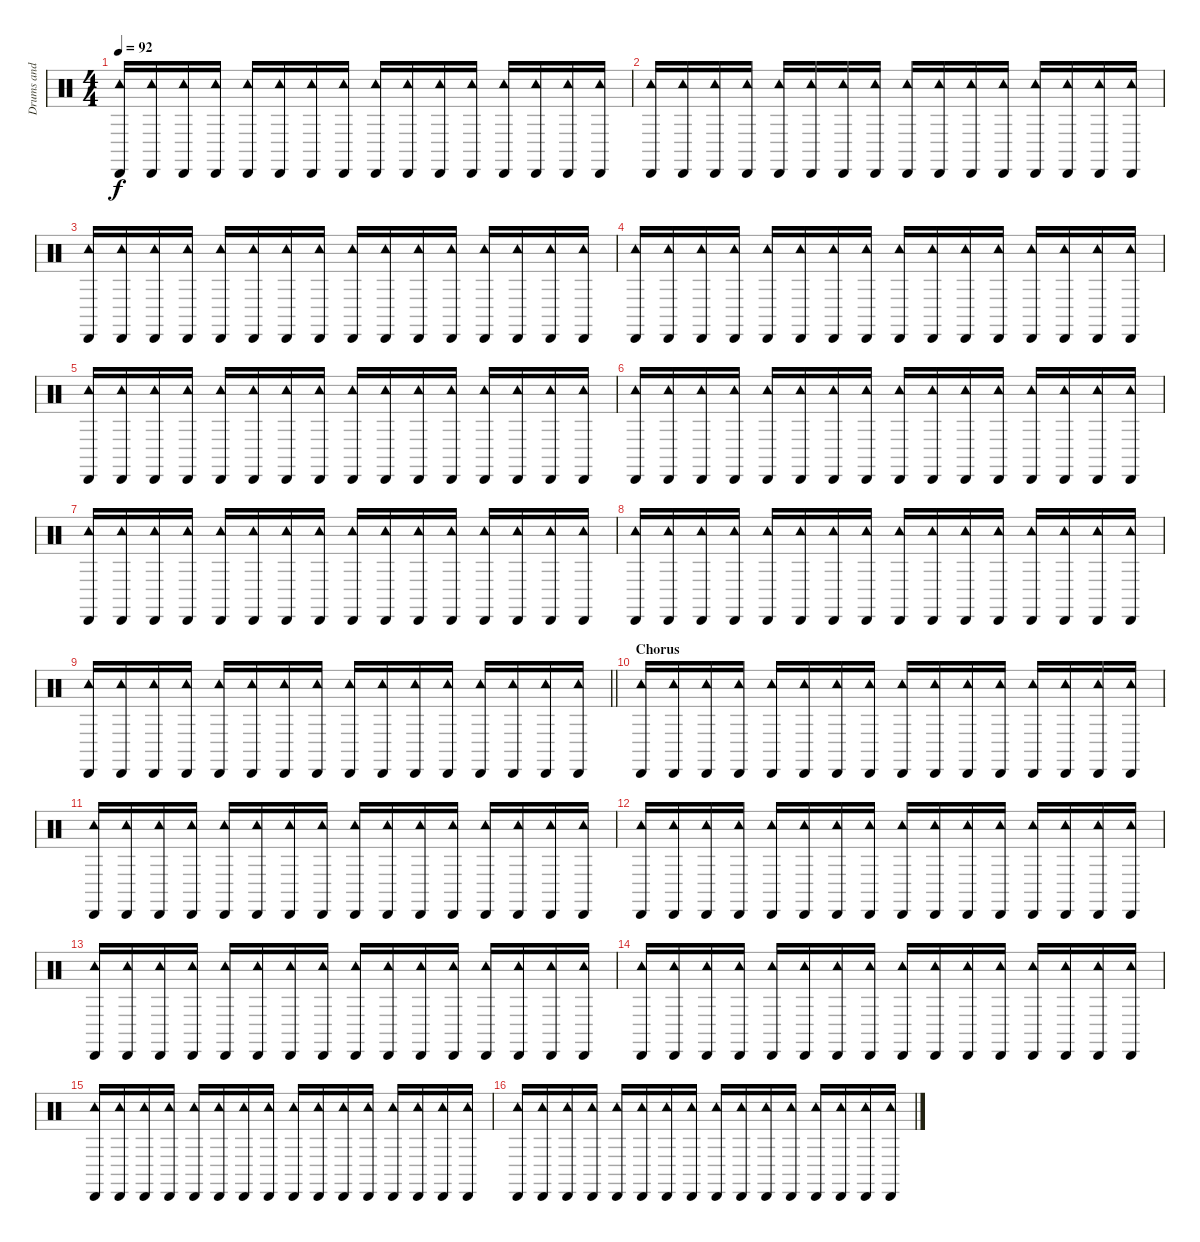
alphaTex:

\track ("Drums and Percussions" "Drums and ") {instrument percussion}
\staff {score}
\articulation defaults
\ts (4 4)
\tempo 92
\clef neutral
\ks c
("Cabasa (hit)" "Tambourine (hit)").16{dy f} ("Cabasa (hit)" "Tambourine (hit)").16 ("Cabasa (hit)" "Tambourine (hit)").16 ("Cabasa (hit)" "Tambourine (hit)").16 ("Cabasa (hit)" "Tambourine (hit)").16 ("Cabasa (hit)" "Tambourine (hit)").16 ("Cabasa (hit)" "Tambourine (hit)").16 ("Cabasa (hit)" "Tambourine (hit)").16 ("Cabasa (hit)" "Tambourine (hit)").16 ("Cabasa (hit)" "Tambourine (hit)").16 ("Cabasa (hit)" "Tambourine (hit)").16 ("Cabasa (hit)" "Tambourine (hit)").16 ("Cabasa (hit)" "Tambourine (hit)").16 ("Cabasa (hit)" "Tambourine (hit)").16 ("Cabasa (hit)" "Tambourine (hit)").16 ("Cabasa (hit)" "Tambourine (hit)").16 |
("Cabasa (hit)" "Tambourine (hit)").16 ("Cabasa (hit)" "Tambourine (hit)").16 ("Cabasa (hit)" "Tambourine (hit)").16 ("Cabasa (hit)" "Tambourine (hit)").16 ("Cabasa (hit)" "Tambourine (hit)").16 ("Cabasa (hit)" "Tambourine (hit)").16 ("Cabasa (hit)" "Tambourine (hit)").16 ("Cabasa (hit)" "Tambourine (hit)").16 ("Cabasa (hit)" "Tambourine (hit)").16 ("Cabasa (hit)" "Tambourine (hit)").16 ("Cabasa (hit)" "Tambourine (hit)").16 ("Cabasa (hit)" "Tambourine (hit)").16 ("Cabasa (hit)" "Tambourine (hit)").16 ("Cabasa (hit)" "Tambourine (hit)").16 ("Cabasa (hit)" "Tambourine (hit)").16 ("Cabasa (hit)" "Tambourine (hit)").16 |
("Cabasa (hit)" "Tambourine (hit)").16 ("Cabasa (hit)" "Tambourine (hit)").16 ("Cabasa (hit)" "Tambourine (hit)").16 ("Cabasa (hit)" "Tambourine (hit)").16 ("Cabasa (hit)" "Tambourine (hit)").16 ("Cabasa (hit)" "Tambourine (hit)").16 ("Cabasa (hit)" "Tambourine (hit)").16 ("Cabasa (hit)" "Tambourine (hit)").16 ("Cabasa (hit)" "Tambourine (hit)").16 ("Cabasa (hit)" "Tambourine (hit)").16 ("Cabasa (hit)" "Tambourine (hit)").16 ("Cabasa (hit)" "Tambourine (hit)").16 ("Cabasa (hit)" "Tambourine (hit)").16 ("Cabasa (hit)" "Tambourine (hit)").16 ("Cabasa (hit)" "Tambourine (hit)").16 ("Cabasa (hit)" "Tambourine (hit)").16 |
("Cabasa (hit)" "Tambourine (hit)").16 ("Cabasa (hit)" "Tambourine (hit)").16 ("Cabasa (hit)" "Tambourine (hit)").16 ("Cabasa (hit)" "Tambourine (hit)").16 ("Cabasa (hit)" "Tambourine (hit)").16 ("Cabasa (hit)" "Tambourine (hit)").16 ("Cabasa (hit)" "Tambourine (hit)").16 ("Cabasa (hit)" "Tambourine (hit)").16 ("Cabasa (hit)" "Tambourine (hit)").16 ("Cabasa (hit)" "Tambourine (hit)").16 ("Cabasa (hit)" "Tambourine (hit)").16 ("Cabasa (hit)" "Tambourine (hit)").16 ("Cabasa (hit)" "Tambourine (hit)").16 ("Cabasa (hit)" "Tambourine (hit)").16 ("Cabasa (hit)" "Tambourine (hit)").16 ("Cabasa (hit)" "Tambourine (hit)").16 |
("Cabasa (hit)" "Tambourine (hit)").16 ("Cabasa (hit)" "Tambourine (hit)").16 ("Cabasa (hit)" "Tambourine (hit)").16 ("Cabasa (hit)" "Tambourine (hit)").16 ("Cabasa (hit)" "Tambourine (hit)").16 ("Cabasa (hit)" "Tambourine (hit)").16 ("Cabasa (hit)" "Tambourine (hit)").16 ("Cabasa (hit)" "Tambourine (hit)").16 ("Cabasa (hit)" "Tambourine (hit)").16 ("Cabasa (hit)" "Tambourine (hit)").16 ("Cabasa (hit)" "Tambourine (hit)").16 ("Cabasa (hit)" "Tambourine (hit)").16 ("Cabasa (hit)" "Tambourine (hit)").16 ("Cabasa (hit)" "Tambourine (hit)").16 ("Cabasa (hit)" "Tambourine (hit)").16 ("Cabasa (hit)" "Tambourine (hit)").16 |
("Cabasa (hit)" "Tambourine (hit)").16 ("Cabasa (hit)" "Tambourine (hit)").16 ("Cabasa (hit)" "Tambourine (hit)").16 ("Cabasa (hit)" "Tambourine (hit)").16 ("Cabasa (hit)" "Tambourine (hit)").16 ("Cabasa (hit)" "Tambourine (hit)").16 ("Cabasa (hit)" "Tambourine (hit)").16 ("Cabasa (hit)" "Tambourine (hit)").16 ("Cabasa (hit)" "Tambourine (hit)").16 ("Cabasa (hit)" "Tambourine (hit)").16 ("Cabasa (hit)" "Tambourine (hit)").16 ("Cabasa (hit)" "Tambourine (hit)").16 ("Cabasa (hit)" "Tambourine (hit)").16 ("Cabasa (hit)" "Tambourine (hit)").16 ("Cabasa (hit)" "Tambourine (hit)").16 ("Cabasa (hit)" "Tambourine (hit)").16 |
("Cabasa (hit)" "Tambourine (hit)").16 ("Cabasa (hit)" "Tambourine (hit)").16 ("Cabasa (hit)" "Tambourine (hit)").16 ("Cabasa (hit)" "Tambourine (hit)").16 ("Cabasa (hit)" "Tambourine (hit)").16 ("Cabasa (hit)" "Tambourine (hit)").16 ("Cabasa (hit)" "Tambourine (hit)").16 ("Cabasa (hit)" "Tambourine (hit)").16 ("Cabasa (hit)" "Tambourine (hit)").16 ("Cabasa (hit)" "Tambourine (hit)").16 ("Cabasa (hit)" "Tambourine (hit)").16 ("Cabasa (hit)" "Tambourine (hit)").16 ("Cabasa (hit)" "Tambourine (hit)").16 ("Cabasa (hit)" "Tambourine (hit)").16 ("Cabasa (hit)" "Tambourine (hit)").16 ("Cabasa (hit)" "Tambourine (hit)").16 |
("Cabasa (hit)" "Tambourine (hit)").16 ("Cabasa (hit)" "Tambourine (hit)").16 ("Cabasa (hit)" "Tambourine (hit)").16 ("Cabasa (hit)" "Tambourine (hit)").16 ("Cabasa (hit)" "Tambourine (hit)").16 ("Cabasa (hit)" "Tambourine (hit)").16 ("Cabasa (hit)" "Tambourine (hit)").16 ("Cabasa (hit)" "Tambourine (hit)").16 ("Cabasa (hit)" "Tambourine (hit)").16 ("Cabasa (hit)" "Tambourine (hit)").16 ("Cabasa (hit)" "Tambourine (hit)").16 ("Cabasa (hit)" "Tambourine (hit)").16 ("Cabasa (hit)" "Tambourine (hit)").16 ("Cabasa (hit)" "Tambourine (hit)").16 ("Cabasa (hit)" "Tambourine (hit)").16 ("Cabasa (hit)" "Tambourine (hit)").16 |
\barLineRight lightlight
("Cabasa (hit)" "Tambourine (hit)").16 ("Cabasa (hit)" "Tambourine (hit)").16 ("Cabasa (hit)" "Tambourine (hit)").16 ("Cabasa (hit)" "Tambourine (hit)").16 ("Cabasa (hit)" "Tambourine (hit)").16 ("Cabasa (hit)" "Tambourine (hit)").16 ("Cabasa (hit)" "Tambourine (hit)").16 ("Cabasa (hit)" "Tambourine (hit)").16 ("Cabasa (hit)" "Tambourine (hit)").16 ("Cabasa (hit)" "Tambourine (hit)").16 ("Cabasa (hit)" "Tambourine (hit)").16 ("Cabasa (hit)" "Tambourine (hit)").16 ("Cabasa (hit)" "Tambourine (hit)").16 ("Cabasa (hit)" "Tambourine (hit)").16 ("Cabasa (hit)" "Tambourine (hit)").16 ("Cabasa (hit)" "Tambourine (hit)").16 |
\section ("" "Chorus")
("Cabasa (hit)" "Tambourine (hit)").16 ("Cabasa (hit)" "Tambourine (hit)").16 ("Cabasa (hit)" "Tambourine (hit)").16 ("Cabasa (hit)" "Tambourine (hit)").16 ("Cabasa (hit)" "Tambourine (hit)").16 ("Cabasa (hit)" "Tambourine (hit)").16 ("Cabasa (hit)" "Tambourine (hit)").16 ("Cabasa (hit)" "Tambourine (hit)").16 ("Cabasa (hit)" "Tambourine (hit)").16 ("Cabasa (hit)" "Tambourine (hit)").16 ("Cabasa (hit)" "Tambourine (hit)").16 ("Cabasa (hit)" "Tambourine (hit)").16 ("Cabasa (hit)" "Tambourine (hit)").16 ("Cabasa (hit)" "Tambourine (hit)").16 ("Cabasa (hit)" "Tambourine (hit)").16 ("Cabasa (hit)" "Tambourine (hit)").16 |
("Cabasa (hit)" "Tambourine (hit)").16 ("Cabasa (hit)" "Tambourine (hit)").16 ("Cabasa (hit)" "Tambourine (hit)").16 ("Cabasa (hit)" "Tambourine (hit)").16 ("Cabasa (hit)" "Tambourine (hit)").16 ("Cabasa (hit)" "Tambourine (hit)").16 ("Cabasa (hit)" "Tambourine (hit)").16 ("Cabasa (hit)" "Tambourine (hit)").16 ("Cabasa (hit)" "Tambourine (hit)").16 ("Cabasa (hit)" "Tambourine (hit)").16 ("Cabasa (hit)" "Tambourine (hit)").16 ("Cabasa (hit)" "Tambourine (hit)").16 ("Cabasa (hit)" "Tambourine (hit)").16 ("Cabasa (hit)" "Tambourine (hit)").16 ("Cabasa (hit)" "Tambourine (hit)").16 ("Cabasa (hit)" "Tambourine (hit)").16 |
("Cabasa (hit)" "Tambourine (hit)").16 ("Cabasa (hit)" "Tambourine (hit)").16 ("Cabasa (hit)" "Tambourine (hit)").16 ("Cabasa (hit)" "Tambourine (hit)").16 ("Cabasa (hit)" "Tambourine (hit)").16 ("Cabasa (hit)" "Tambourine (hit)").16 ("Cabasa (hit)" "Tambourine (hit)").16 ("Cabasa (hit)" "Tambourine (hit)").16 ("Cabasa (hit)" "Tambourine (hit)").16 ("Cabasa (hit)" "Tambourine (hit)").16 ("Cabasa (hit)" "Tambourine (hit)").16 ("Cabasa (hit)" "Tambourine (hit)").16 ("Cabasa (hit)" "Tambourine (hit)").16 ("Cabasa (hit)" "Tambourine (hit)").16 ("Cabasa (hit)" "Tambourine (hit)").16 ("Cabasa (hit)" "Tambourine (hit)").16 |
("Cabasa (hit)" "Tambourine (hit)").16 ("Cabasa (hit)" "Tambourine (hit)").16 ("Cabasa (hit)" "Tambourine (hit)").16 ("Cabasa (hit)" "Tambourine (hit)").16 ("Cabasa (hit)" "Tambourine (hit)").16 ("Cabasa (hit)" "Tambourine (hit)").16 ("Cabasa (hit)" "Tambourine (hit)").16 ("Cabasa (hit)" "Tambourine (hit)").16 ("Cabasa (hit)" "Tambourine (hit)").16 ("Cabasa (hit)" "Tambourine (hit)").16 ("Cabasa (hit)" "Tambourine (hit)").16 ("Cabasa (hit)" "Tambourine (hit)").16 ("Cabasa (hit)" "Tambourine (hit)").16 ("Cabasa (hit)" "Tambourine (hit)").16 ("Cabasa (hit)" "Tambourine (hit)").16 ("Cabasa (hit)" "Tambourine (hit)").16 |
("Cabasa (hit)" "Tambourine (hit)").16 ("Cabasa (hit)" "Tambourine (hit)").16 ("Cabasa (hit)" "Tambourine (hit)").16 ("Cabasa (hit)" "Tambourine (hit)").16 ("Cabasa (hit)" "Tambourine (hit)").16 ("Cabasa (hit)" "Tambourine (hit)").16 ("Cabasa (hit)" "Tambourine (hit)").16 ("Cabasa (hit)" "Tambourine (hit)").16 ("Cabasa (hit)" "Tambourine (hit)").16 ("Cabasa (hit)" "Tambourine (hit)").16 ("Cabasa (hit)" "Tambourine (hit)").16 ("Cabasa (hit)" "Tambourine (hit)").16 ("Cabasa (hit)" "Tambourine (hit)").16 ("Cabasa (hit)" "Tambourine (hit)").16 ("Cabasa (hit)" "Tambourine (hit)").16 ("Cabasa (hit)" "Tambourine (hit)").16 |
("Cabasa (hit)" "Tambourine (hit)").16 ("Cabasa (hit)" "Tambourine (hit)").16 ("Cabasa (hit)" "Tambourine (hit)").16 ("Cabasa (hit)" "Tambourine (hit)").16 ("Cabasa (hit)" "Tambourine (hit)").16 ("Cabasa (hit)" "Tambourine (hit)").16 ("Cabasa (hit)" "Tambourine (hit)").16 ("Cabasa (hit)" "Tambourine (hit)").16 ("Cabasa (hit)" "Tambourine (hit)").16 ("Cabasa (hit)" "Tambourine (hit)").16 ("Cabasa (hit)" "Tambourine (hit)").16 ("Cabasa (hit)" "Tambourine (hit)").16 ("Cabasa (hit)" "Tambourine (hit)").16 ("Cabasa (hit)" "Tambourine (hit)").16 ("Cabasa (hit)" "Tambourine (hit)").16 ("Cabasa (hit)" "Tambourine (hit)").16 |
("Cabasa (hit)" "Tambourine (hit)").16 ("Cabasa (hit)" "Tambourine (hit)").16 ("Cabasa (hit)" "Tambourine (hit)").16 ("Cabasa (hit)" "Tambourine (hit)").16 ("Cabasa (hit)" "Tambourine (hit)").16 ("Cabasa (hit)" "Tambourine (hit)").16 ("Cabasa (hit)" "Tambourine (hit)").16 ("Cabasa (hit)" "Tambourine (hit)").16 ("Cabasa (hit)" "Tambourine (hit)").16 ("Cabasa (hit)" "Tambourine (hit)").16 ("Cabasa (hit)" "Tambourine (hit)").16 ("Cabasa (hit)" "Tambourine (hit)").16 ("Cabasa (hit)" "Tambourine (hit)").16 ("Cabasa (hit)" "Tambourine (hit)").16 ("Cabasa (hit)" "Tambourine (hit)").16 ("Cabasa (hit)" "Tambourine (hit)").16
